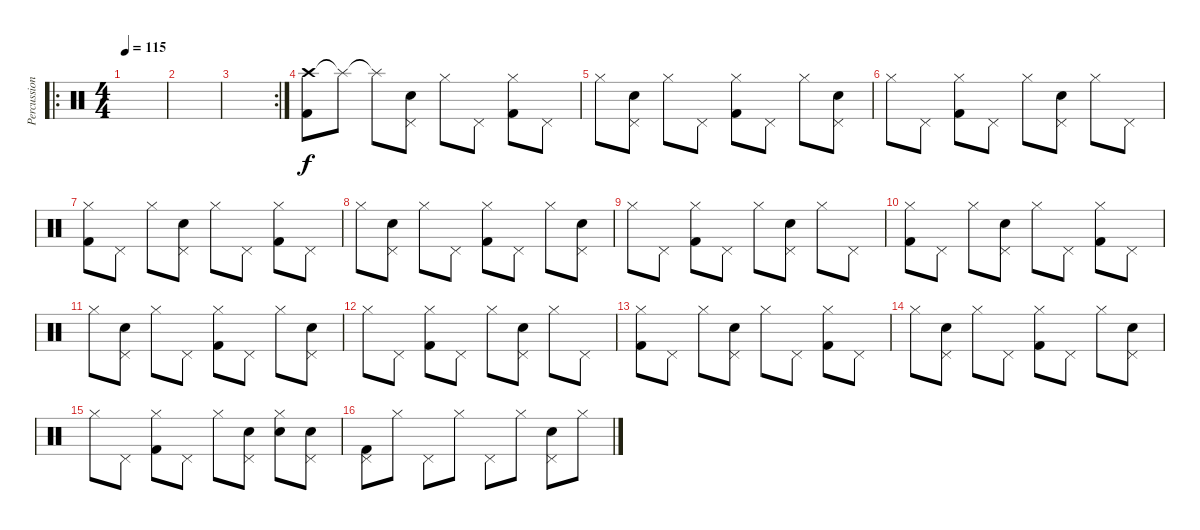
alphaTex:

\track ("Percussion" "Percussion") {instrument percussion}
\staff {score}
\articulation defaults
\ro
\ts (4 4)
\tempo 115
\clef neutral
\ks c
|
|
\rc 2
|
("Crash high (hit)" "Kick (hit) 2").8{dy f} "Splash (hit)"{t}.8 "Splash (hit)"{t}.8 ("Pedal Hi-Hat (hit)" "Electric Snare (hit)").8 "Hi-Hat (closed)".8 "Pedal Hi-Hat (hit)".8 ("Hi-Hat (closed)" "Kick (hit) 2").8 "Pedal Hi-Hat (hit)".8 |
"Hi-Hat (closed)".8 ("Pedal Hi-Hat (hit)" "Electric Snare (hit)").8 "Hi-Hat (closed)".8 "Pedal Hi-Hat (hit)".8 ("Hi-Hat (closed)" "Kick (hit) 2").8 "Pedal Hi-Hat (hit)".8 "Hi-Hat (closed)".8 ("Pedal Hi-Hat (hit)" "Electric Snare (hit)").8 |
"Hi-Hat (closed)".8 "Pedal Hi-Hat (hit)".8 ("Hi-Hat (closed)" "Kick (hit) 2").8 "Pedal Hi-Hat (hit)".8 "Hi-Hat (closed)".8 ("Pedal Hi-Hat (hit)" "Electric Snare (hit)").8 "Hi-Hat (closed)".8 "Pedal Hi-Hat (hit)".8 |
("Hi-Hat (closed)" "Kick (hit) 2").8 "Pedal Hi-Hat (hit)".8 "Hi-Hat (closed)".8 ("Pedal Hi-Hat (hit)" "Electric Snare (hit)").8 "Hi-Hat (closed)".8 "Pedal Hi-Hat (hit)".8 ("Hi-Hat (closed)" "Kick (hit) 2").8 "Pedal Hi-Hat (hit)".8 |
"Hi-Hat (closed)".8 ("Pedal Hi-Hat (hit)" "Electric Snare (hit)").8 "Hi-Hat (closed)".8 "Pedal Hi-Hat (hit)".8 ("Hi-Hat (closed)" "Kick (hit) 2").8 "Pedal Hi-Hat (hit)".8 "Hi-Hat (closed)".8 ("Pedal Hi-Hat (hit)" "Electric Snare (hit)").8 |
"Hi-Hat (closed)".8 "Pedal Hi-Hat (hit)".8 ("Hi-Hat (closed)" "Kick (hit) 2").8 "Pedal Hi-Hat (hit)".8 "Hi-Hat (closed)".8 ("Pedal Hi-Hat (hit)" "Electric Snare (hit)").8 "Hi-Hat (closed)".8 "Pedal Hi-Hat (hit)".8 |
("Hi-Hat (closed)" "Kick (hit) 2").8 "Pedal Hi-Hat (hit)".8 "Hi-Hat (closed)".8 ("Pedal Hi-Hat (hit)" "Electric Snare (hit)").8 "Hi-Hat (closed)".8 "Pedal Hi-Hat (hit)".8 ("Hi-Hat (closed)" "Kick (hit) 2").8 "Pedal Hi-Hat (hit)".8 |
"Hi-Hat (closed)".8 ("Pedal Hi-Hat (hit)" "Electric Snare (hit)").8 "Hi-Hat (closed)".8 "Pedal Hi-Hat (hit)".8 ("Hi-Hat (closed)" "Kick (hit) 2").8 "Pedal Hi-Hat (hit)".8 "Hi-Hat (closed)".8 ("Pedal Hi-Hat (hit)" "Electric Snare (hit)").8 |
"Hi-Hat (closed)".8 "Pedal Hi-Hat (hit)".8 ("Hi-Hat (closed)" "Kick (hit) 2").8 "Pedal Hi-Hat (hit)".8 "Hi-Hat (closed)".8 ("Pedal Hi-Hat (hit)" "Electric Snare (hit)").8 "Hi-Hat (closed)".8 "Pedal Hi-Hat (hit)".8 |
("Hi-Hat (closed)" "Kick (hit) 2").8 "Pedal Hi-Hat (hit)".8 "Hi-Hat (closed)".8 ("Pedal Hi-Hat (hit)" "Electric Snare (hit)").8 "Hi-Hat (closed)".8 "Pedal Hi-Hat (hit)".8 ("Hi-Hat (closed)" "Kick (hit) 2").8 "Pedal Hi-Hat (hit)".8 |
"Hi-Hat (closed)".8 ("Pedal Hi-Hat (hit)" "Electric Snare (hit)").8 "Hi-Hat (closed)".8 "Pedal Hi-Hat (hit)".8 ("Hi-Hat (closed)" "Kick (hit) 2").8 "Pedal Hi-Hat (hit)".8 "Hi-Hat (closed)".8 ("Pedal Hi-Hat (hit)" "Electric Snare (hit)").8 |
"Hi-Hat (closed)".8 "Pedal Hi-Hat (hit)".8 ("Hi-Hat (closed)" "Kick (hit) 2").8 "Pedal Hi-Hat (hit)".8 "Hi-Hat (closed)".8 ("Pedal Hi-Hat (hit)" "Electric Snare (hit)").8 ("Hi-Hat (closed)" "Electric Snare (hit)").8 ("Pedal Hi-Hat (hit)" "Electric Snare (hit)").8 |
("Pedal Hi-Hat (hit)" "Kick (hit) 2").8 "Hi-Hat (closed)".8 "Pedal Hi-Hat (hit)".8 "Hi-Hat (closed)".8 "Pedal Hi-Hat (hit)".8 "Hi-Hat (closed)".8 ("Pedal Hi-Hat (hit)" "Electric Snare (hit)").8 "Hi-Hat (closed)".8
